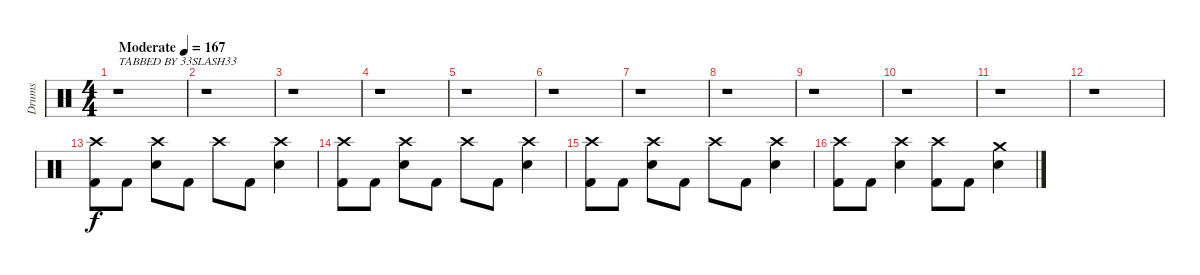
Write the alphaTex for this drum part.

\track ("Drums" "Drums") {instrument percussion}
\staff {score}
\articulation defaults
\ts (4 4)
\tempo (167 "Moderate")
\clef neutral
\ks c
r.1{txt "TABBED BY 33SLASH33" dy f} |
r.1 |
r.1 |
r.1 |
r.1 |
r.1 |
r.1 |
r.1 |
r.1 |
r.1 |
r.1 |
r.1 |
("Crash high (hit)" "Kick (hit) 2").8 "Kick (hit) 2".8 ("Crash high (hit)" "Snare (hit) 2").8 "Kick (hit) 2".8 "Crash high (hit)".8 "Kick (hit) 2".8 ("Crash high (hit)" "Snare (hit) 2").4 |
("Crash high (hit)" "Kick (hit) 2").8 "Kick (hit) 2".8 ("Crash high (hit)" "Snare (hit) 2").8 "Kick (hit) 2".8 "Crash high (hit)".8 "Kick (hit) 2".8 ("Crash high (hit)" "Snare (hit) 2").4 |
("Crash high (hit)" "Kick (hit) 2").8 "Kick (hit) 2".8 ("Crash high (hit)" "Snare (hit) 2").8 "Kick (hit) 2".8 "Crash high (hit)".8 "Kick (hit) 2".8 ("Crash high (hit)" "Snare (hit) 2").4 |
("Crash high (hit)" "Kick (hit) 2").8 "Kick (hit) 2".8 ("Crash high (hit)" "Snare (hit) 2").4 ("Crash high (hit)" "Kick (hit) 2").8 "Kick (hit) 2".8 ("Crash medium (hit)" "Snare (hit) 2").4
